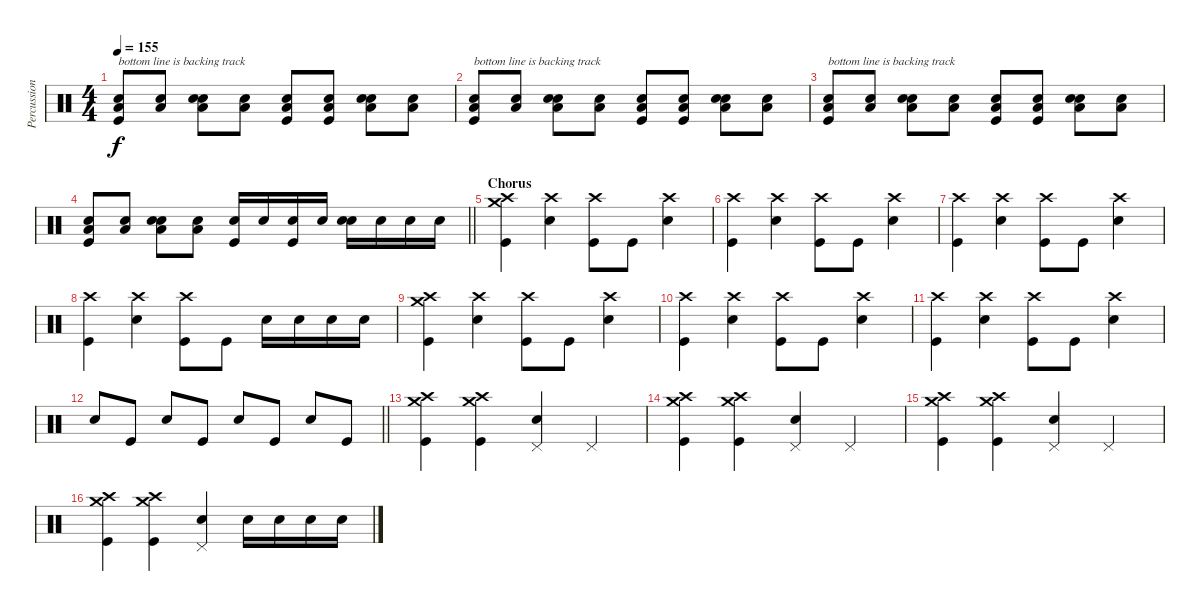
\track ("Percussion" "Percussion") {instrument percussion}
\staff {score}
\articulation defaults
\ts (4 4)
\tempo 155
\clef neutral
\ks c
("Electric Snare (hit)" "Low Floor Tom (hit)" "Kick (hit)").8{txt "bottom line is backing track" dy f} ("Electric Snare (hit)" "Low Floor Tom (hit)").8 ("Electric Snare (hit)" "Low Floor Tom (hit)" "Electric Snare (hit)").8 ("Electric Snare (hit)" "Low Floor Tom (hit)").8 ("Electric Snare (hit)" "Low Floor Tom (hit)" "Kick (hit)").8 ("Electric Snare (hit)" "Low Floor Tom (hit)" "Kick (hit)").8 ("Electric Snare (hit)" "Low Floor Tom (hit)" "Electric Snare (hit)").8 ("Electric Snare (hit)" "Low Floor Tom (hit)").8 |
("Electric Snare (hit)" "Low Floor Tom (hit)" "Kick (hit)").8{txt "bottom line is backing track"} ("Electric Snare (hit)" "Low Floor Tom (hit)").8 ("Electric Snare (hit)" "Low Floor Tom (hit)" "Electric Snare (hit)").8 ("Electric Snare (hit)" "Low Floor Tom (hit)").8 ("Electric Snare (hit)" "Low Floor Tom (hit)" "Kick (hit)").8 ("Electric Snare (hit)" "Low Floor Tom (hit)" "Kick (hit)").8 ("Electric Snare (hit)" "Low Floor Tom (hit)" "Electric Snare (hit)").8 ("Electric Snare (hit)" "Low Floor Tom (hit)").8 |
("Electric Snare (hit)" "Low Floor Tom (hit)" "Kick (hit)").8{txt "bottom line is backing track"} ("Electric Snare (hit)" "Low Floor Tom (hit)").8 ("Electric Snare (hit)" "Low Floor Tom (hit)" "Electric Snare (hit)").8 ("Electric Snare (hit)" "Low Floor Tom (hit)").8 ("Electric Snare (hit)" "Low Floor Tom (hit)" "Kick (hit)").8 ("Electric Snare (hit)" "Low Floor Tom (hit)" "Kick (hit)").8 ("Electric Snare (hit)" "Low Floor Tom (hit)" "Electric Snare (hit)").8 ("Electric Snare (hit)" "Low Floor Tom (hit)").8 |
\barLineRight lightlight
("Electric Snare (hit)" "Low Floor Tom (hit)" "Kick (hit)").8 ("Electric Snare (hit)" "Low Floor Tom (hit)").8 ("Electric Snare (hit)" "Low Floor Tom (hit)" "Electric Snare (hit)").8 ("Electric Snare (hit)" "Low Floor Tom (hit)").8 ("Electric Snare (hit)" "Kick (hit)").16 "Electric Snare (hit)".16 ("Electric Snare (hit)" "Kick (hit)").16 "Electric Snare (hit)".16 ("Electric Snare (hit)" "Electric Snare (hit)").16 "Electric Snare (hit)".16 "Electric Snare (hit)".16 "Electric Snare (hit)".16 |
\section ("" "Chorus")
("Crash high (hit)" "Crash medium (hit)" "Kick (hit)").4 ("Crash high (hit)" "Electric Snare (hit)").4 ("Crash high (hit)" "Kick (hit)").8 "Kick (hit)".8 ("Crash high (hit)" "Electric Snare (hit)").4 |
("Crash high (hit)" "Kick (hit)").4 ("Crash high (hit)" "Electric Snare (hit)").4 ("Crash high (hit)" "Kick (hit)").8 "Kick (hit)".8 ("Crash high (hit)" "Electric Snare (hit)").4 |
("Crash high (hit)" "Kick (hit)").4 ("Crash high (hit)" "Electric Snare (hit)").4 ("Crash high (hit)" "Kick (hit)").8 "Kick (hit)".8 ("Crash high (hit)" "Electric Snare (hit)").4 |
("Crash high (hit)" "Kick (hit)").4 ("Crash high (hit)" "Electric Snare (hit)").4 ("Crash high (hit)" "Kick (hit)").8 "Kick (hit)".8 "Electric Snare (hit)".16 "Electric Snare (hit)".16 "Electric Snare (hit)".16 "Electric Snare (hit)".16 |
("Crash high (hit)" "Crash medium (hit)" "Kick (hit)").4 ("Crash high (hit)" "Electric Snare (hit)").4 ("Crash high (hit)" "Kick (hit)").8 "Kick (hit)".8 ("Crash high (hit)" "Electric Snare (hit)").4 |
("Crash high (hit)" "Kick (hit)").4 ("Crash high (hit)" "Electric Snare (hit)").4 ("Crash high (hit)" "Kick (hit)").8 "Kick (hit)".8 ("Crash high (hit)" "Electric Snare (hit)").4 |
("Crash high (hit)" "Kick (hit)").4 ("Crash high (hit)" "Electric Snare (hit)").4 ("Crash high (hit)" "Kick (hit)").8 "Kick (hit)".8 ("Crash high (hit)" "Electric Snare (hit)").4 |
\barLineRight lightlight "Electric Snare (hit)".8 "Kick (hit)".8 "Electric Snare (hit)".8 "Kick (hit)".8 "Electric Snare (hit)".8 "Kick (hit)".8 "Electric Snare (hit)".8 "Kick (hit)".8
|
("Crash high (hit)" "Crash medium (hit)" "Kick (hit)").4 ("Crash high (hit)" "Crash medium (hit)" "Kick (hit)").4 ("Pedal Hi-Hat (hit)" "Electric Snare (hit)").4 "Pedal Hi-Hat (hit)".4 |
("Crash high (hit)" "Crash medium (hit)" "Kick (hit)").4 ("Crash high (hit)" "Crash medium (hit)" "Kick (hit)").4 ("Pedal Hi-Hat (hit)" "Electric Snare (hit)").4 "Pedal Hi-Hat (hit)".4 |
("Crash high (hit)" "Crash medium (hit)" "Kick (hit)").4 ("Crash high (hit)" "Crash medium (hit)" "Kick (hit)").4 ("Pedal Hi-Hat (hit)" "Electric Snare (hit)").4 "Pedal Hi-Hat (hit)".4 |
("Crash high (hit)" "Crash medium (hit)" "Kick (hit)").4 ("Crash high (hit)" "Crash medium (hit)" "Kick (hit)").4 ("Pedal Hi-Hat (hit)" "Electric Snare (hit)").4 "Electric Snare (hit)".16 "Electric Snare (hit)".16 "Electric Snare (hit)".16 "Electric Snare (hit)".16
